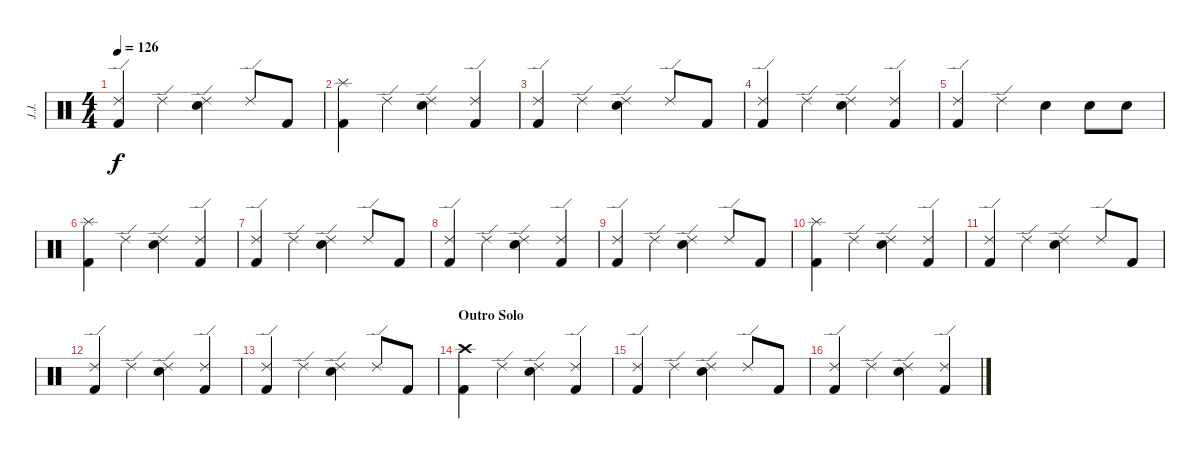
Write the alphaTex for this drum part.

\track ("J.J." "J.J.") {instrument percussion}
\staff {score}
\articulation defaults
\ts (4 4)
\tempo 126
\clef neutral
\ks c
("Ride (edge) 2" "Kick (hit) 2").4{dy f} "Ride (edge) 2".4 ("Ride (edge) 2" "Electric Snare (hit)").4 "Ride (edge) 2".8 "Kick (hit) 2".8 |
("Splash (hit)" "Kick (hit) 2").4 "Ride (edge) 2".4 ("Ride (edge) 2" "Electric Snare (hit)").4 ("Ride (edge) 2" "Kick (hit) 2").4 |
("Ride (edge) 2" "Kick (hit) 2").4 "Ride (edge) 2".4 ("Ride (edge) 2" "Electric Snare (hit)").4 "Ride (edge) 2".8 "Kick (hit) 2".8 |
("Ride (edge) 2" "Kick (hit) 2").4 "Ride (edge) 2".4 ("Ride (edge) 2" "Electric Snare (hit)").4 ("Ride (edge) 2" "Kick (hit) 2").4 |
("Ride (edge) 2" "Kick (hit) 2").4 "Ride (edge) 2".4 "Electric Snare (hit)".4 "Electric Snare (hit)".8 "Electric Snare (hit)".8 |
("Splash (hit)" "Kick (hit) 2").4 "Ride (edge) 2".4 ("Ride (edge) 2" "Electric Snare (hit)").4 ("Ride (edge) 2" "Kick (hit) 2").4 |
("Ride (edge) 2" "Kick (hit) 2").4 "Ride (edge) 2".4 ("Ride (edge) 2" "Electric Snare (hit)").4 "Ride (edge) 2".8 "Kick (hit) 2".8 |
("Ride (edge) 2" "Kick (hit) 2").4 "Ride (edge) 2".4 ("Ride (edge) 2" "Electric Snare (hit)").4 ("Ride (edge) 2" "Kick (hit) 2").4 |
("Ride (edge) 2" "Kick (hit) 2").4 "Ride (edge) 2".4 ("Ride (edge) 2" "Electric Snare (hit)").4 "Ride (edge) 2".8 "Kick (hit) 2".8 |
("Splash (hit)" "Kick (hit) 2").4 "Ride (edge) 2".4 ("Ride (edge) 2" "Electric Snare (hit)").4 ("Ride (edge) 2" "Kick (hit) 2").4 |
("Ride (edge) 2" "Kick (hit) 2").4 "Ride (edge) 2".4 ("Ride (edge) 2" "Electric Snare (hit)").4 "Ride (edge) 2".8 "Kick (hit) 2".8 |
("Ride (edge) 2" "Kick (hit) 2").4 "Ride (edge) 2".4 ("Ride (edge) 2" "Electric Snare (hit)").4 ("Ride (edge) 2" "Kick (hit) 2").4 |
("Ride (edge) 2" "Kick (hit) 2").4 "Ride (edge) 2".4 ("Ride (edge) 2" "Electric Snare (hit)").4 "Ride (edge) 2".8 "Kick (hit) 2".8 |
\section ("" "Outro Solo")
("Crash high (hit)" "Kick (hit) 2").4 "Ride (edge) 2".4 ("Ride (edge) 2" "Electric Snare (hit)").4 ("Ride (edge) 2" "Kick (hit) 2").4 |
("Ride (edge) 2" "Kick (hit) 2").4 "Ride (edge) 2".4 ("Ride (edge) 2" "Electric Snare (hit)").4 "Ride (edge) 2".8 "Kick (hit) 2".8 |
("Ride (edge) 2" "Kick (hit) 2").4 "Ride (edge) 2".4 ("Ride (edge) 2" "Electric Snare (hit)").4 ("Ride (edge) 2" "Kick (hit) 2").4
